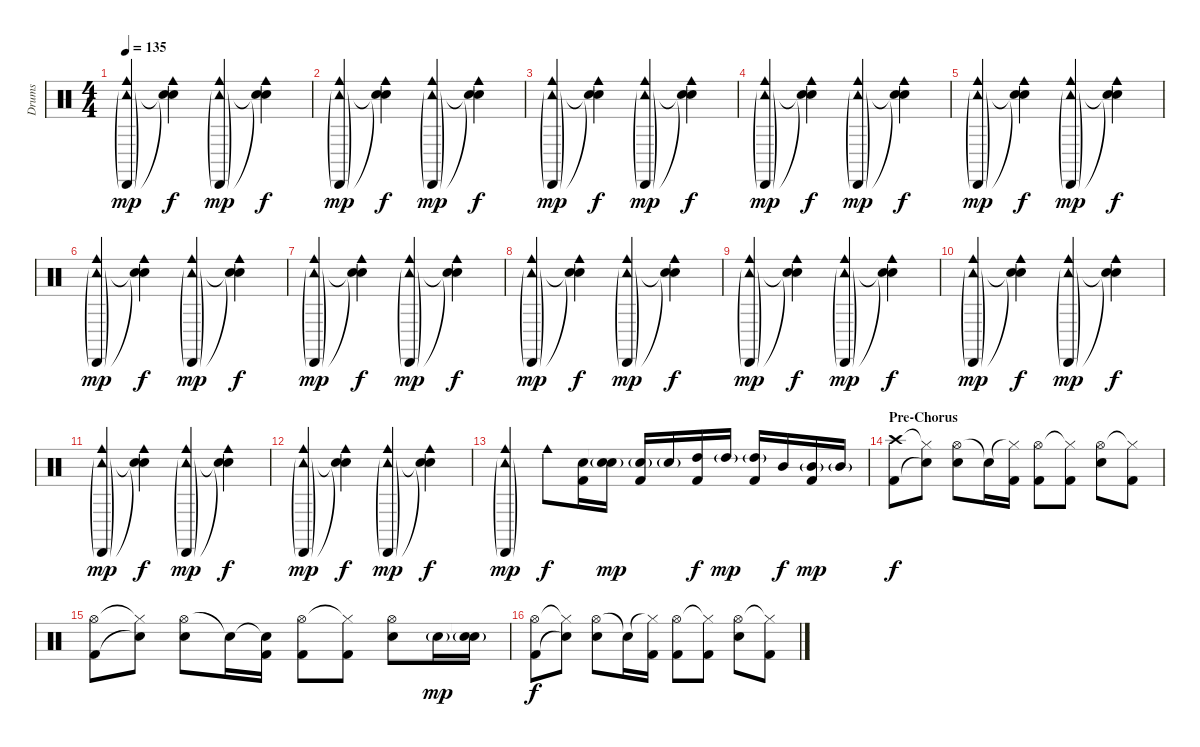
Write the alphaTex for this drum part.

\track ("Drums" "Drums") {instrument percussion}
\staff {score}
\articulation defaults
\ts (4 4)
\tempo 135
\clef neutral
\ks c
("Cowbell medium (hit)" "Tambourine (hit)"{g} "Cabasa (hit)"{g}).4{dy mp} ("Cowbell medium (hit)" "Snare (hit)"{t} "Snare (hit)"{t}).4{dy f} ("Cowbell medium (hit)" "Tambourine (hit)"{g} "Cabasa (hit)"{g}).4{dy mp} ("Cowbell medium (hit)" "Snare (hit)"{t} "Snare (hit)"{t}).4{dy f} |
("Cowbell medium (hit)" "Tambourine (hit)"{g} "Cabasa (hit)"{g}).4{dy mp} ("Cowbell medium (hit)" "Snare (hit)"{t} "Snare (hit)"{t}).4{dy f} ("Cowbell medium (hit)" "Tambourine (hit)"{g} "Cabasa (hit)"{g}).4{dy mp} ("Cowbell medium (hit)" "Snare (hit)"{t} "Snare (hit)"{t}).4{dy f} |
("Cowbell medium (hit)" "Tambourine (hit)"{g} "Cabasa (hit)"{g}).4{dy mp} ("Cowbell medium (hit)" "Snare (hit)"{t} "Snare (hit)"{t}).4{dy f} ("Cowbell medium (hit)" "Tambourine (hit)"{g} "Cabasa (hit)"{g}).4{dy mp} ("Cowbell medium (hit)" "Snare (hit)"{t} "Snare (hit)"{t}).4{dy f} |
("Cowbell medium (hit)" "Tambourine (hit)"{g} "Cabasa (hit)"{g}).4{dy mp} ("Cowbell medium (hit)" "Snare (hit)"{t} "Snare (hit)"{t}).4{dy f} ("Cowbell medium (hit)" "Tambourine (hit)"{g} "Cabasa (hit)"{g}).4{dy mp} ("Cowbell medium (hit)" "Snare (hit)"{t} "Snare (hit)"{t}).4{dy f} |
("Cowbell medium (hit)" "Tambourine (hit)"{g} "Cabasa (hit)"{g}).4{dy mp} ("Cowbell medium (hit)" "Snare (hit)"{t} "Snare (hit)"{t}).4{dy f} ("Cowbell medium (hit)" "Tambourine (hit)"{g} "Cabasa (hit)"{g}).4{dy mp} ("Cowbell medium (hit)" "Snare (hit)"{t} "Snare (hit)"{t}).4{dy f} |
("Cowbell medium (hit)" "Tambourine (hit)"{g} "Cabasa (hit)"{g}).4{dy mp} ("Cowbell medium (hit)" "Snare (hit)"{t} "Snare (hit)"{t}).4{dy f} ("Cowbell medium (hit)" "Tambourine (hit)"{g} "Cabasa (hit)"{g}).4{dy mp} ("Cowbell medium (hit)" "Snare (hit)"{t} "Snare (hit)"{t}).4{dy f} |
("Cowbell medium (hit)" "Tambourine (hit)"{g} "Cabasa (hit)"{g}).4{dy mp} ("Cowbell medium (hit)" "Snare (hit)"{t} "Snare (hit)"{t}).4{dy f} ("Cowbell medium (hit)" "Tambourine (hit)"{g} "Cabasa (hit)"{g}).4{dy mp} ("Cowbell medium (hit)" "Snare (hit)"{t} "Snare (hit)"{t}).4{dy f} |
("Cowbell medium (hit)" "Tambourine (hit)"{g} "Cabasa (hit)"{g}).4{dy mp} ("Cowbell medium (hit)" "Snare (hit)"{t} "Snare (hit)"{t}).4{dy f} ("Cowbell medium (hit)" "Tambourine (hit)"{g} "Cabasa (hit)"{g}).4{dy mp} ("Cowbell medium (hit)" "Snare (hit)"{t} "Snare (hit)"{t}).4{dy f} |
("Cowbell medium (hit)" "Tambourine (hit)"{g} "Cabasa (hit)"{g}).4{dy mp} ("Cowbell medium (hit)" "Snare (hit)"{t} "Snare (hit)"{t}).4{dy f} ("Cowbell medium (hit)" "Tambourine (hit)"{g} "Cabasa (hit)"{g}).4{dy mp} ("Cowbell medium (hit)" "Snare (hit)"{t} "Snare (hit)"{t}).4{dy f} |
("Cowbell medium (hit)" "Tambourine (hit)"{g} "Cabasa (hit)"{g}).4{dy mp} ("Cowbell medium (hit)" "Snare (hit)"{t} "Snare (hit)"{t}).4{dy f} ("Cowbell medium (hit)" "Tambourine (hit)"{g} "Cabasa (hit)"{g}).4{dy mp} ("Cowbell medium (hit)" "Snare (hit)"{t} "Snare (hit)"{t}).4{dy f} |
("Cowbell medium (hit)" "Tambourine (hit)"{g} "Cabasa (hit)"{g}).4{dy mp} ("Cowbell medium (hit)" "Snare (hit)"{t} "Snare (hit)"{t}).4{dy f} ("Cowbell medium (hit)" "Tambourine (hit)"{g} "Cabasa (hit)"{g}).4{dy mp} ("Cowbell medium (hit)" "Snare (hit)"{t} "Snare (hit)"{t}).4{dy f} |
("Cowbell medium (hit)" "Tambourine (hit)"{g} "Cabasa (hit)"{g}).4{dy mp} ("Cowbell medium (hit)" "Snare (hit)"{t} "Snare (hit)"{t}).4{dy f} ("Cowbell medium (hit)" "Tambourine (hit)"{g} "Cabasa (hit)"{g}).4{dy mp} ("Cowbell medium (hit)" "Snare (hit)"{t} "Snare (hit)"{t}).4{dy f} |
("Cowbell medium (hit)" "Tambourine (hit)"{g} "Cabasa (hit)"{g}).4{dy mp} "Cowbell medium (hit)".8{dy f} ("Electric Snare (hit)" "Kick (hit) 2").16 ("Snare (hit)"{t} "Electric Snare (hit)"{g}).16{dy mp} ("Electric Snare (hit)"{g} "Kick (hit) 2").16 "Electric Snare (hit)"{g}.16 ("High Tom (hit)" "Kick (hit) 2").16{dy f} "High Tom (hit)"{g}.16{dy mp} ("High Tom (hit)"{g} "Kick (hit) 2").16 "Mid Tom (hit)".16{dy f} ("Mid Tom (hit)"{g} "Kick (hit) 2").16{dy mp} "Mid Tom (hit)"{g}.16 |
\section ("" "Pre-Chorus")
("Crash high (hit)" "Kick (hit) 2").8{dy f} ("Hi-Hat (closed)"{t} "Snare (hit)"{t}).8 ("Hi-Hat (open)" "Electric Snare (hit)").8 "Snare (hit)"{t}.16 ("Hi-Hat (closed)"{t} "Kick (hit) 2").16 ("Hi-Hat (open)" "Kick (hit) 2").8 ("Hi-Hat (closed)"{t} "Kick (hit) 2").8 ("Hi-Hat (open)" "Electric Snare (hit)").8 ("Hi-Hat (closed)"{t} "Kick (hit) 2").8 |
("Hi-Hat (open)" "Kick (hit) 2").8 ("Hi-Hat (closed)"{t} "Snare (hit)"{t}).8 ("Hi-Hat (open)" "Electric Snare (hit)").8 "Snare (hit)"{t}.16 ("Snare (hit)"{t} "Kick (hit) 2").16 ("Hi-Hat (open)" "Kick (hit) 2").8 ("Hi-Hat (closed)"{t} "Kick (hit) 2").8 ("Hi-Hat (open)" "Electric Snare (hit)").8 "Electric Snare (hit)"{g}.16{dy mp} ("Snare (hit)"{t} "Electric Snare (hit)"{g}).16 |
("Hi-Hat (open)" "Kick (hit) 2").8{dy f} ("Hi-Hat (closed)"{t} "Snare (hit)"{t}).8 ("Hi-Hat (open)" "Electric Snare (hit)").8 "Snare (hit)"{t}.16 ("Hi-Hat (closed)"{t} "Kick (hit) 2").16 ("Hi-Hat (open)" "Kick (hit) 2").8 ("Hi-Hat (closed)"{t} "Kick (hit) 2").8 ("Hi-Hat (open)" "Electric Snare (hit)").8 ("Hi-Hat (closed)"{t} "Kick (hit) 2").8
